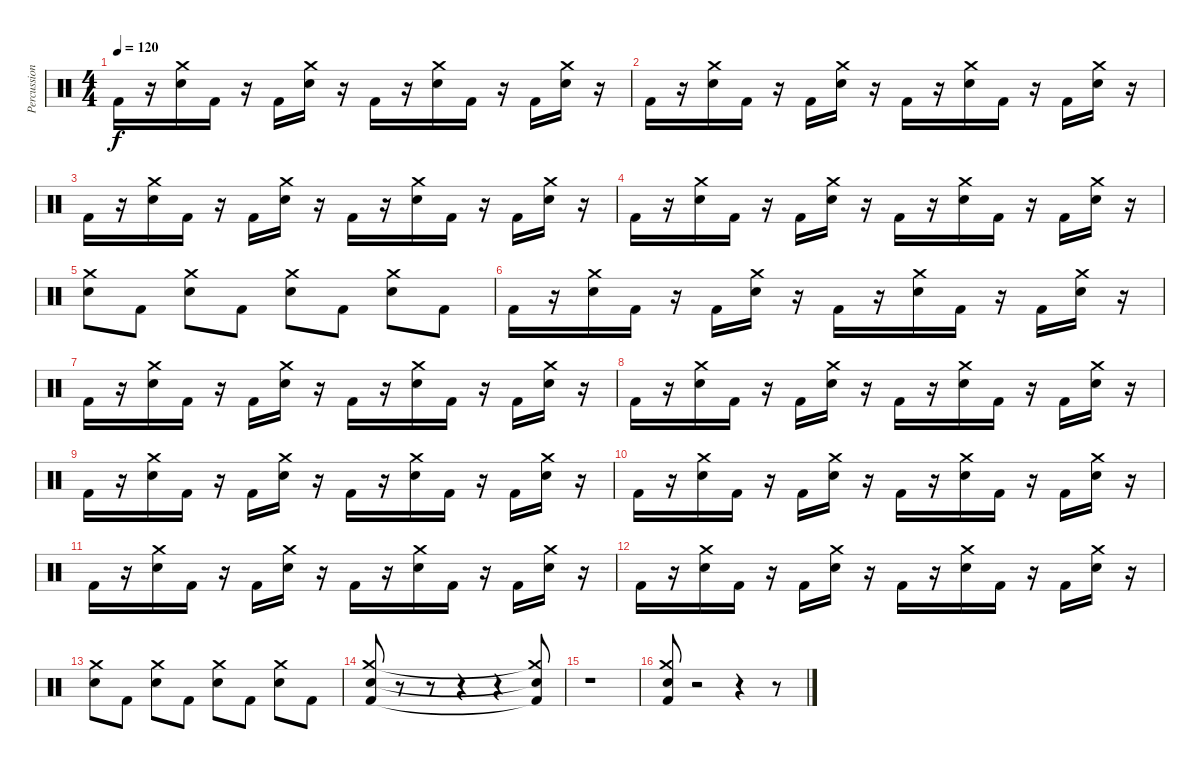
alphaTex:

\track ("Percussion" "Percussion") {instrument percussion}
\staff {score}
\articulation defaults
\ts (4 4)
\tempo 120
\clef neutral
\ks c "Kick (hit) 2".16{dy f}
r.16 ("Crash medium (hit)" "Electric Snare (hit)").16 "Kick (hit) 2".16 r.16 "Kick (hit) 2".16 ("Crash medium (hit)" "Electric Snare (hit)").16 r.16 "Kick (hit) 2".16 r.16 ("Crash medium (hit)" "Electric Snare (hit)").16 "Kick (hit) 2".16 r.16 "Kick (hit) 2".16 ("Crash medium (hit)" "Electric Snare (hit)").16 r.16 |
"Kick (hit) 2".16 r.16 ("Crash medium (hit)" "Electric Snare (hit)").16 "Kick (hit) 2".16 r.16 "Kick (hit) 2".16 ("Crash medium (hit)" "Electric Snare (hit)").16 r.16 "Kick (hit) 2".16 r.16 ("Crash medium (hit)" "Electric Snare (hit)").16 "Kick (hit) 2".16 r.16 "Kick (hit) 2".16 ("Crash medium (hit)" "Electric Snare (hit)").16 r.16 |
"Kick (hit) 2".16 r.16 ("Crash medium (hit)" "Electric Snare (hit)").16 "Kick (hit) 2".16 r.16 "Kick (hit) 2".16 ("Crash medium (hit)" "Electric Snare (hit)").16 r.16 "Kick (hit) 2".16 r.16 ("Crash medium (hit)" "Electric Snare (hit)").16 "Kick (hit) 2".16 r.16 "Kick (hit) 2".16 ("Crash medium (hit)" "Electric Snare (hit)").16 r.16 |
"Kick (hit) 2".16 r.16 ("Crash medium (hit)" "Electric Snare (hit)").16 "Kick (hit) 2".16 r.16 "Kick (hit) 2".16 ("Crash medium (hit)" "Electric Snare (hit)").16 r.16 "Kick (hit) 2".16 r.16 ("Crash medium (hit)" "Electric Snare (hit)").16 "Kick (hit) 2".16 r.16 "Kick (hit) 2".16 ("Crash medium (hit)" "Electric Snare (hit)").16 r.16 |
("Crash medium (hit)" "Electric Snare (hit)").8 "Kick (hit) 2".8 ("Crash medium (hit)" "Electric Snare (hit)").8 "Kick (hit) 2".8 ("Crash medium (hit)" "Electric Snare (hit)").8 "Kick (hit) 2".8 ("Crash medium (hit)" "Electric Snare (hit)").8 "Kick (hit) 2".8 |
"Kick (hit) 2".16 r.16 ("Crash medium (hit)" "Electric Snare (hit)").16 "Kick (hit) 2".16 r.16 "Kick (hit) 2".16 ("Crash medium (hit)" "Electric Snare (hit)").16 r.16 "Kick (hit) 2".16 r.16 ("Crash medium (hit)" "Electric Snare (hit)").16 "Kick (hit) 2".16 r.16 "Kick (hit) 2".16 ("Crash medium (hit)" "Electric Snare (hit)").16 r.16 |
"Kick (hit) 2".16 r.16 ("Crash medium (hit)" "Electric Snare (hit)").16 "Kick (hit) 2".16 r.16 "Kick (hit) 2".16 ("Crash medium (hit)" "Electric Snare (hit)").16 r.16 "Kick (hit) 2".16 r.16 ("Crash medium (hit)" "Electric Snare (hit)").16 "Kick (hit) 2".16 r.16 "Kick (hit) 2".16 ("Crash medium (hit)" "Electric Snare (hit)").16 r.16 |
"Kick (hit) 2".16 r.16 ("Crash medium (hit)" "Electric Snare (hit)").16 "Kick (hit) 2".16 r.16 "Kick (hit) 2".16 ("Crash medium (hit)" "Electric Snare (hit)").16 r.16 "Kick (hit) 2".16 r.16 ("Crash medium (hit)" "Electric Snare (hit)").16 "Kick (hit) 2".16 r.16 "Kick (hit) 2".16 ("Crash medium (hit)" "Electric Snare (hit)").16 r.16 |
"Kick (hit) 2".16 r.16 ("Crash medium (hit)" "Electric Snare (hit)").16 "Kick (hit) 2".16 r.16 "Kick (hit) 2".16 ("Crash medium (hit)" "Electric Snare (hit)").16 r.16 "Kick (hit) 2".16 r.16 ("Crash medium (hit)" "Electric Snare (hit)").16 "Kick (hit) 2".16 r.16 "Kick (hit) 2".16 ("Crash medium (hit)" "Electric Snare (hit)").16 r.16 |
"Kick (hit) 2".16 r.16 ("Crash medium (hit)" "Electric Snare (hit)").16 "Kick (hit) 2".16 r.16 "Kick (hit) 2".16 ("Crash medium (hit)" "Electric Snare (hit)").16 r.16 "Kick (hit) 2".16 r.16 ("Crash medium (hit)" "Electric Snare (hit)").16 "Kick (hit) 2".16 r.16 "Kick (hit) 2".16 ("Crash medium (hit)" "Electric Snare (hit)").16 r.16 |
"Kick (hit) 2".16 r.16 ("Crash medium (hit)" "Electric Snare (hit)").16 "Kick (hit) 2".16 r.16 "Kick (hit) 2".16 ("Crash medium (hit)" "Electric Snare (hit)").16 r.16 "Kick (hit) 2".16 r.16 ("Crash medium (hit)" "Electric Snare (hit)").16 "Kick (hit) 2".16 r.16 "Kick (hit) 2".16 ("Crash medium (hit)" "Electric Snare (hit)").16 r.16 |
"Kick (hit) 2".16 r.16 ("Crash medium (hit)" "Electric Snare (hit)").16 "Kick (hit) 2".16 r.16 "Kick (hit) 2".16 ("Crash medium (hit)" "Electric Snare (hit)").16 r.16 "Kick (hit) 2".16 r.16 ("Crash medium (hit)" "Electric Snare (hit)").16 "Kick (hit) 2".16 r.16 "Kick (hit) 2".16 ("Crash medium (hit)" "Electric Snare (hit)").16 r.16 |
("Crash medium (hit)" "Electric Snare (hit)").8 "Kick (hit) 2".8 ("Crash medium (hit)" "Electric Snare (hit)").8 "Kick (hit) 2".8 ("Crash medium (hit)" "Electric Snare (hit)").8 "Kick (hit) 2".8 ("Crash medium (hit)" "Electric Snare (hit)").8 "Kick (hit) 2".8 |
("Crash medium (hit)" "Electric Snare (hit)" "Kick (hit) 2").8 r.8 r.8 r.4 r.4 ("Crash medium (hit)"{t} "Electric Snare (hit)"{t} "Kick (hit) 2"{t}).8 |
r.1 |
("Crash medium (hit)" "Electric Snare (hit)" "Kick (hit) 2").8 r.2 r.4 r.8
